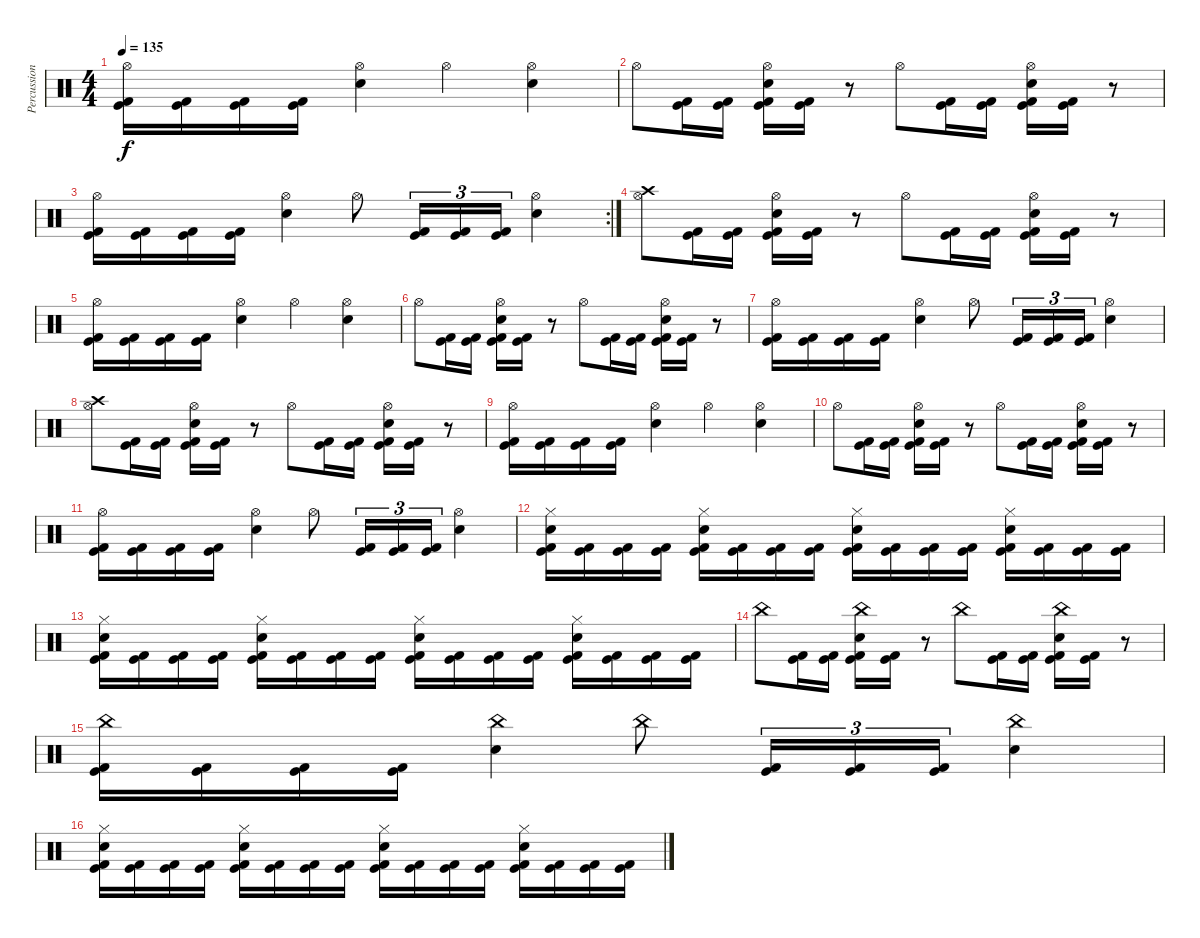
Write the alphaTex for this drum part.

\track ("Percussion" "Percussion") {instrument percussion}
\staff {score}
\articulation defaults
\ts (4 4)
\tempo 135
\clef neutral
\ks c
("Hi-Hat (open)" "Kick (hit) 2" "Kick (hit)").16{dy f} ("Kick (hit) 2" "Kick (hit)").16 ("Kick (hit) 2" "Kick (hit)").16 ("Kick (hit) 2" "Kick (hit)").16 ("Hi-Hat (open)" "Snare (hit) 2").4 "Hi-Hat (open)".4 ("Hi-Hat (open)" "Snare (hit) 2").4 |
"Hi-Hat (open)".8 ("Kick (hit) 2" "Kick (hit)").16 ("Kick (hit) 2" "Kick (hit)").16 ("Hi-Hat (open)" "Snare (hit) 2" "Kick (hit) 2" "Kick (hit)").16 ("Kick (hit) 2" "Kick (hit)").16 r.8 "Hi-Hat (open)".8 ("Kick (hit) 2" "Kick (hit)").16 ("Kick (hit) 2" "Kick (hit)").16 ("Hi-Hat (open)" "Snare (hit) 2" "Kick (hit) 2" "Kick (hit)").16 ("Kick (hit) 2" "Kick (hit)").16 r.8 |
\rc 2
("Hi-Hat (open)" "Kick (hit) 2" "Kick (hit)").16 ("Kick (hit) 2" "Kick (hit)").16 ("Kick (hit) 2" "Kick (hit)").16 ("Kick (hit) 2" "Kick (hit)").16 ("Hi-Hat (open)" "Snare (hit) 2").4 "Hi-Hat (open)".8 ("Kick (hit) 2" "Kick (hit)").16{tu (3 2)} ("Kick (hit) 2" "Kick (hit)").16{tu (3 2)} ("Kick (hit) 2" "Kick (hit)").16{tu (3 2)} ("Hi-Hat (open)" "Snare (hit) 2").4 |
("Hi-Hat (open)" "Crash high (hit)").8 ("Kick (hit) 2" "Kick (hit)").16 ("Kick (hit) 2" "Kick (hit)").16 ("Hi-Hat (open)" "Snare (hit) 2" "Kick (hit) 2" "Kick (hit)").16 ("Kick (hit) 2" "Kick (hit)").16 r.8 "Hi-Hat (open)".8 ("Kick (hit) 2" "Kick (hit)").16 ("Kick (hit) 2" "Kick (hit)").16 ("Hi-Hat (open)" "Snare (hit) 2" "Kick (hit) 2" "Kick (hit)").16 ("Kick (hit) 2" "Kick (hit)").16 r.8 |
("Hi-Hat (open)" "Kick (hit) 2" "Kick (hit)").16 ("Kick (hit) 2" "Kick (hit)").16 ("Kick (hit) 2" "Kick (hit)").16 ("Kick (hit) 2" "Kick (hit)").16 ("Hi-Hat (open)" "Snare (hit) 2").4 "Hi-Hat (open)".4 ("Hi-Hat (open)" "Snare (hit) 2").4 |
"Hi-Hat (open)".8 ("Kick (hit) 2" "Kick (hit)").16 ("Kick (hit) 2" "Kick (hit)").16 ("Hi-Hat (open)" "Snare (hit) 2" "Kick (hit) 2" "Kick (hit)").16 ("Kick (hit) 2" "Kick (hit)").16 r.8 "Hi-Hat (open)".8 ("Kick (hit) 2" "Kick (hit)").16 ("Kick (hit) 2" "Kick (hit)").16 ("Hi-Hat (open)" "Snare (hit) 2" "Kick (hit) 2" "Kick (hit)").16 ("Kick (hit) 2" "Kick (hit)").16 r.8 |
("Hi-Hat (open)" "Kick (hit) 2" "Kick (hit)").16 ("Kick (hit) 2" "Kick (hit)").16 ("Kick (hit) 2" "Kick (hit)").16 ("Kick (hit) 2" "Kick (hit)").16 ("Hi-Hat (open)" "Snare (hit) 2").4 "Hi-Hat (open)".8 ("Kick (hit) 2" "Kick (hit)").16{tu (3 2)} ("Kick (hit) 2" "Kick (hit)").16{tu (3 2)} ("Kick (hit) 2" "Kick (hit)").16{tu (3 2)} ("Hi-Hat (open)" "Snare (hit) 2").4 |
("Hi-Hat (open)" "Crash high (hit)").8 ("Kick (hit) 2" "Kick (hit)").16 ("Kick (hit) 2" "Kick (hit)").16 ("Hi-Hat (open)" "Snare (hit) 2" "Kick (hit) 2" "Kick (hit)").16 ("Kick (hit) 2" "Kick (hit)").16 r.8 "Hi-Hat (open)".8 ("Kick (hit) 2" "Kick (hit)").16 ("Kick (hit) 2" "Kick (hit)").16 ("Hi-Hat (open)" "Snare (hit) 2" "Kick (hit) 2" "Kick (hit)").16 ("Kick (hit) 2" "Kick (hit)").16 r.8 |
("Hi-Hat (open)" "Kick (hit) 2" "Kick (hit)").16 ("Kick (hit) 2" "Kick (hit)").16 ("Kick (hit) 2" "Kick (hit)").16 ("Kick (hit) 2" "Kick (hit)").16 ("Hi-Hat (open)" "Snare (hit) 2").4 "Hi-Hat (open)".4 ("Hi-Hat (open)" "Snare (hit) 2").4 |
"Hi-Hat (open)".8 ("Kick (hit) 2" "Kick (hit)").16 ("Kick (hit) 2" "Kick (hit)").16 ("Hi-Hat (open)" "Snare (hit) 2" "Kick (hit) 2" "Kick (hit)").16 ("Kick (hit) 2" "Kick (hit)").16 r.8 "Hi-Hat (open)".8 ("Kick (hit) 2" "Kick (hit)").16 ("Kick (hit) 2" "Kick (hit)").16 ("Hi-Hat (open)" "Snare (hit) 2" "Kick (hit) 2" "Kick (hit)").16 ("Kick (hit) 2" "Kick (hit)").16 r.8 |
("Hi-Hat (open)" "Kick (hit) 2" "Kick (hit)").16 ("Kick (hit) 2" "Kick (hit)").16 ("Kick (hit) 2" "Kick (hit)").16 ("Kick (hit) 2" "Kick (hit)").16 ("Hi-Hat (open)" "Snare (hit) 2").4 "Hi-Hat (open)".8 ("Kick (hit) 2" "Kick (hit)").16{tu (3 2)} ("Kick (hit) 2" "Kick (hit)").16{tu (3 2)} ("Kick (hit) 2" "Kick (hit)").16{tu (3 2)} ("Hi-Hat (open)" "Snare (hit) 2").4 |
("Hi-Hat (closed)" "Snare (hit) 2" "Kick (hit) 2" "Kick (hit)").16 ("Kick (hit) 2" "Kick (hit)").16 ("Kick (hit) 2" "Kick (hit)").16 ("Kick (hit) 2" "Kick (hit)").16 ("Hi-Hat (closed)" "Snare (hit) 2" "Kick (hit) 2" "Kick (hit)").16 ("Kick (hit) 2" "Kick (hit)").16 ("Kick (hit) 2" "Kick (hit)").16 ("Kick (hit) 2" "Kick (hit)").16 ("Hi-Hat (closed)" "Snare (hit) 2" "Kick (hit) 2" "Kick (hit)").16 ("Kick (hit) 2" "Kick (hit)").16 ("Kick (hit) 2" "Kick (hit)").16 ("Kick (hit) 2" "Kick (hit)").16 ("Hi-Hat (closed)" "Snare (hit) 2" "Kick (hit) 2" "Kick (hit)").16 ("Kick (hit) 2" "Kick (hit)").16 ("Kick (hit) 2" "Kick (hit)").16 ("Kick (hit) 2" "Kick (hit)").16 |
("Hi-Hat (closed)" "Snare (hit) 2" "Kick (hit) 2" "Kick (hit)").16 ("Kick (hit) 2" "Kick (hit)").16 ("Kick (hit) 2" "Kick (hit)").16 ("Kick (hit) 2" "Kick (hit)").16 ("Hi-Hat (closed)" "Snare (hit) 2" "Kick (hit) 2" "Kick (hit)").16 ("Kick (hit) 2" "Kick (hit)").16 ("Kick (hit) 2" "Kick (hit)").16 ("Kick (hit) 2" "Kick (hit)").16 ("Hi-Hat (closed)" "Snare (hit) 2" "Kick (hit) 2" "Kick (hit)").16 ("Kick (hit) 2" "Kick (hit)").16 ("Kick (hit) 2" "Kick (hit)").16 ("Kick (hit) 2" "Kick (hit)").16 ("Hi-Hat (closed)" "Snare (hit) 2" "Kick (hit) 2" "Kick (hit)").16 ("Kick (hit) 2" "Kick (hit)").16 ("Kick (hit) 2" "Kick (hit)").16 ("Kick (hit) 2" "Kick (hit)").16 |
"China (hit)".8 ("Kick (hit) 2" "Kick (hit)").16 ("Kick (hit) 2" "Kick (hit)").16 ("China (hit)" "Snare (hit) 2" "Kick (hit) 2" "Kick (hit)").16 ("Kick (hit) 2" "Kick (hit)").16 r.8 "China (hit)".8 ("Kick (hit) 2" "Kick (hit)").16 ("Kick (hit) 2" "Kick (hit)").16 ("China (hit)" "Snare (hit) 2" "Kick (hit) 2" "Kick (hit)").16 ("Kick (hit) 2" "Kick (hit)").16 r.8 |
("China (hit)" "Kick (hit) 2" "Kick (hit)").16 ("Kick (hit) 2" "Kick (hit)").16 ("Kick (hit) 2" "Kick (hit)").16 ("Kick (hit) 2" "Kick (hit)").16 ("China (hit)" "Snare (hit) 2").4 "China (hit)".8 ("Kick (hit) 2" "Kick (hit)").16{tu (3 2)} ("Kick (hit) 2" "Kick (hit)").16{tu (3 2)} ("Kick (hit) 2" "Kick (hit)").16{tu (3 2)} ("China (hit)" "Snare (hit) 2").4 |
("Hi-Hat (closed)" "Snare (hit) 2" "Kick (hit) 2" "Kick (hit)").16 ("Kick (hit) 2" "Kick (hit)").16 ("Kick (hit) 2" "Kick (hit)").16 ("Kick (hit) 2" "Kick (hit)").16 ("Hi-Hat (closed)" "Snare (hit) 2" "Kick (hit) 2" "Kick (hit)").16 ("Kick (hit) 2" "Kick (hit)").16 ("Kick (hit) 2" "Kick (hit)").16 ("Kick (hit) 2" "Kick (hit)").16 ("Hi-Hat (closed)" "Snare (hit) 2" "Kick (hit) 2" "Kick (hit)").16 ("Kick (hit) 2" "Kick (hit)").16 ("Kick (hit) 2" "Kick (hit)").16 ("Kick (hit) 2" "Kick (hit)").16 ("Hi-Hat (closed)" "Snare (hit) 2" "Kick (hit) 2" "Kick (hit)").16 ("Kick (hit) 2" "Kick (hit)").16 ("Kick (hit) 2" "Kick (hit)").16 ("Kick (hit) 2" "Kick (hit)").16
